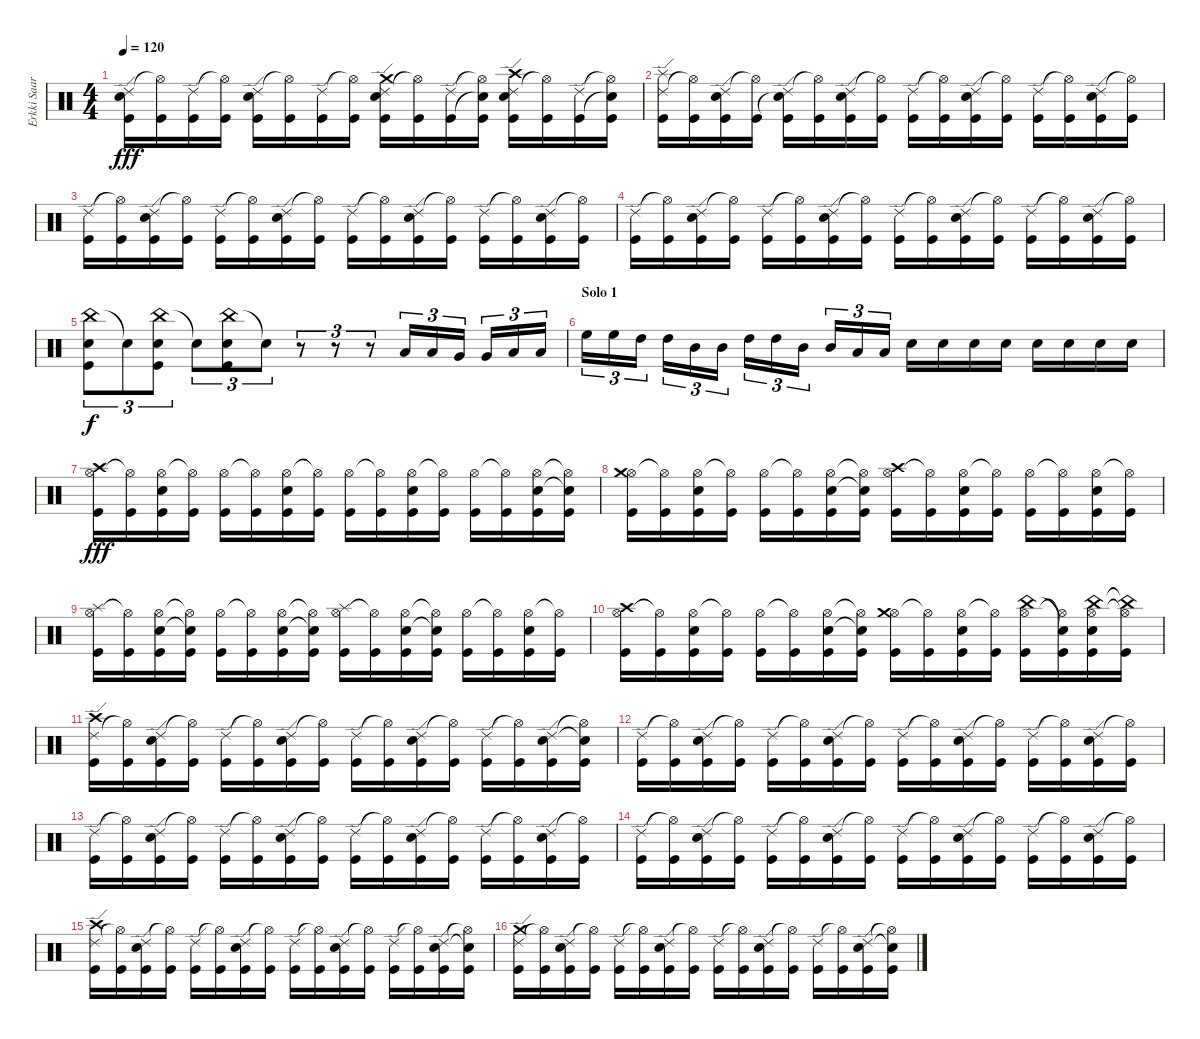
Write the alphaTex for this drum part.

\track ("Erkki Saarinen" "Erkki Saar") {instrument percussion}
\staff {score}
\articulation defaults
\ts (4 4)
\tempo 120
\clef neutral
\ks c
("Ride (edge) 2" "Snare (hit) 2" "Kick (hit)").16{dy fff} ("Hi-Hat (open)"{t} "Kick (hit)").16 ("Ride (edge) 2" "Kick (hit)").16 ("Hi-Hat (open)"{t} "Kick (hit)").16 ("Ride (edge) 2" "Snare (hit) 2" "Kick (hit)").16 ("Hi-Hat (open)"{t} "Kick (hit)").16 ("Ride (edge) 2" "Kick (hit)").16 ("Hi-Hat (open)"{t} "Kick (hit)").16 ("Ride (edge) 2" "Crash medium (hit)" "Snare (hit) 2" "Kick (hit)").16 ("Hi-Hat (open)"{t} "Kick (hit)").16 ("Ride (edge) 2" "Kick (hit)").16 ("Hi-Hat (open)"{t} "Snare (hit)"{t} "Kick (hit)").16 ("Ride (edge) 2" "Crash high (hit)" "Snare (hit) 2" "Kick (hit)").16 ("Hi-Hat (open)"{t} "Kick (hit)").16 ("Ride (edge) 2" "Kick (hit)").16 ("Hi-Hat (open)"{t} "Snare (hit)"{t} "Kick (hit)").16 |
("Ride (edge) 2" "Splash (hit)" "Kick (hit)").16 ("Hi-Hat (open)"{t} "Kick (hit)").16 ("Ride (edge) 2" "Snare (hit) 2" "Kick (hit)").16 ("Hi-Hat (open)"{t} "Kick (hit)").16 ("Ride (edge) 2" "Snare (hit)"{t} "Kick (hit)").16 ("Hi-Hat (open)"{t} "Kick (hit)").16 ("Ride (edge) 2" "Snare (hit) 2" "Kick (hit)").16 ("Hi-Hat (open)"{t} "Kick (hit)").16 ("Ride (edge) 2" "Kick (hit)").16 ("Hi-Hat (open)"{t} "Kick (hit)").16 ("Ride (edge) 2" "Snare (hit) 2" "Kick (hit)").16 ("Hi-Hat (open)"{t} "Kick (hit)").16 ("Ride (edge) 2" "Kick (hit)").16 ("Hi-Hat (open)"{t} "Kick (hit)").16 ("Ride (edge) 2" "Snare (hit) 2" "Kick (hit)").16 ("Hi-Hat (open)"{t} "Kick (hit)").16 |
("Ride (edge) 2" "Kick (hit)").16 ("Hi-Hat (open)"{t} "Kick (hit)").16 ("Ride (edge) 2" "Snare (hit) 2" "Kick (hit)").16 ("Hi-Hat (open)"{t} "Kick (hit)").16 ("Ride (edge) 2" "Kick (hit)").16 ("Hi-Hat (open)"{t} "Kick (hit)").16 ("Ride (edge) 2" "Snare (hit) 2" "Kick (hit)").16 ("Hi-Hat (open)"{t} "Kick (hit)").16 ("Ride (edge) 2" "Kick (hit)").16 ("Hi-Hat (open)"{t} "Kick (hit)").16 ("Ride (edge) 2" "Snare (hit) 2" "Kick (hit)").16 ("Hi-Hat (open)"{t} "Kick (hit)").16 ("Ride (edge) 2" "Kick (hit)").16 ("Hi-Hat (open)"{t} "Kick (hit)").16 ("Ride (edge) 2" "Snare (hit) 2" "Kick (hit)").16 ("Hi-Hat (open)"{t} "Kick (hit)").16 |
("Ride (edge) 2" "Kick (hit)").16 ("Hi-Hat (open)"{t} "Kick (hit)").16 ("Ride (edge) 2" "Snare (hit) 2" "Kick (hit)").16 ("Hi-Hat (open)"{t} "Kick (hit)").16 ("Ride (edge) 2" "Kick (hit)").16 ("Hi-Hat (open)"{t} "Kick (hit)").16 ("Ride (edge) 2" "Snare (hit) 2" "Kick (hit)").16 ("Hi-Hat (open)"{t} "Kick (hit)").16 ("Ride (edge) 2" "Kick (hit)").16 ("Hi-Hat (open)"{t} "Kick (hit)").16 ("Ride (edge) 2" "Snare (hit) 2" "Kick (hit)").16 ("Hi-Hat (open)"{t} "Kick (hit)").16 ("Ride (edge) 2" "Kick (hit)").16 ("Hi-Hat (open)"{t} "Kick (hit)").16 ("Ride (edge) 2" "Snare (hit) 2" "Kick (hit)").16 ("Hi-Hat (open)"{t} "Kick (hit)").16 |
("China (hit)" "Snare (hit) 2" "Kick (hit)").8{tu (3 2) dy f} "Snare (hit)"{t}.8{tu (3 2)} ("China (hit)" "Snare (hit) 2" "Kick (hit)").8{tu (3 2)} "Snare (hit)"{t}.8{tu (3 2)} ("China (hit)" "Snare (hit) 2" "Kick (hit)").8{tu (3 2)} "Snare (hit)"{t}.8{tu (3 2)} r.8{tu (3 2)} r.8{tu (3 2)} r.8{tu (3 2)} "Low Tom (hit)".16{tu (3 2)} "Low Tom (hit)".16{tu (3 2)} "Very Low Tom (hit)".16{tu (3 2)} "Very Low Tom (hit)".16{tu (3 2)} "Low Floor Tom (hit)".16{tu (3 2)} "Low Floor Tom (hit)".16{tu (3 2)} |
\section ("" "Solo 1")
"High Floor Tom (hit)".16{tu (3 2)} "High Floor Tom (hit)".16{tu (3 2)} "High Tom (hit)".16{tu (3 2)} "High Tom (hit)".16{tu (3 2)} "Mid Tom (hit)".16{tu (3 2)} "Mid Tom (hit)".16{tu (3 2)} "High Tom (hit)".16{tu (3 2)} "High Tom (hit)".16{tu (3 2)} "Mid Tom (hit)".16{tu (3 2)} "Mid Tom (hit)".16{tu (3 2)} "Low Tom (hit)".16{tu (3 2)} "Low Tom (hit)".16{tu (3 2)} "Snare (hit) 2".16 "Snare (hit) 2".16 "Snare (hit) 2".16 "Snare (hit) 2".16 "Snare (hit) 2".16 "Snare (hit) 2".16 "Snare (hit) 2".16 "Snare (hit) 2".16 |
("Hi-Hat (open)" "Crash high (hit)" "Kick (hit)").16{dy fff} ("Hi-Hat (open)"{t} "Kick (hit)").16 ("Hi-Hat (open)" "Snare (hit) 2" "Kick (hit)").16 ("Hi-Hat (open)"{t} "Kick (hit)").16 ("Hi-Hat (open)" "Kick (hit)").16 ("Hi-Hat (open)"{t} "Kick (hit)").16 ("Hi-Hat (open)" "Snare (hit) 2" "Kick (hit)").16 ("Hi-Hat (open)"{t} "Kick (hit)").16 ("Hi-Hat (open)" "Kick (hit)").16 ("Hi-Hat (open)"{t} "Kick (hit)").16 ("Hi-Hat (open)" "Snare (hit) 2" "Kick (hit)").16 ("Hi-Hat (open)"{t} "Kick (hit)").16 ("Hi-Hat (open)" "Kick (hit)").16 ("Hi-Hat (open)"{t} "Kick (hit)").16 ("Hi-Hat (open)" "Snare (hit) 2" "Kick (hit)").16 ("Hi-Hat (open)"{t} "Snare (hit)"{t} "Kick (hit)").16 |
("Hi-Hat (open)" "Crash medium (hit)" "Kick (hit)").16 ("Hi-Hat (open)"{t} "Kick (hit)").16 ("Hi-Hat (open)" "Snare (hit) 2" "Kick (hit)").16 ("Hi-Hat (open)"{t} "Kick (hit)").16 ("Hi-Hat (open)" "Kick (hit)").16 ("Hi-Hat (open)"{t} "Kick (hit)").16 ("Hi-Hat (open)" "Snare (hit) 2" "Kick (hit)").16 ("Hi-Hat (open)"{t} "Snare (hit)"{t} "Kick (hit)").16 ("Hi-Hat (open)" "Crash high (hit)" "Kick (hit)").16 ("Hi-Hat (open)"{t} "Kick (hit)").16 ("Hi-Hat (open)" "Snare (hit) 2" "Kick (hit)").16 ("Hi-Hat (open)"{t} "Kick (hit)").16 ("Hi-Hat (open)" "Kick (hit)").16 ("Hi-Hat (open)"{t} "Kick (hit)").16 ("Hi-Hat (open)" "Snare (hit) 2" "Kick (hit)").16 ("Hi-Hat (open)"{t} "Kick (hit)").16 |
("Hi-Hat (open)" "Splash (hit)" "Kick (hit)").16 ("Hi-Hat (open)"{t} "Kick (hit)").16 ("Hi-Hat (open)" "Snare (hit) 2" "Kick (hit)").16 ("Hi-Hat (open)"{t} "Snare (hit)"{t} "Kick (hit)").16 ("Hi-Hat (open)" "Kick (hit)").16 ("Hi-Hat (open)"{t} "Kick (hit)").16 ("Hi-Hat (open)" "Snare (hit) 2" "Kick (hit)").16 ("Hi-Hat (open)"{t} "Snare (hit)"{t} "Kick (hit)").16 ("Hi-Hat (open)" "Splash (hit)" "Kick (hit)").16 ("Hi-Hat (open)"{t} "Kick (hit)").16 ("Hi-Hat (open)" "Snare (hit) 2" "Kick (hit)").16 ("Hi-Hat (open)"{t} "Snare (hit)"{t} "Kick (hit)").16 ("Hi-Hat (open)" "Kick (hit)").16 ("Hi-Hat (open)"{t} "Kick (hit)").16 ("Hi-Hat (open)" "Snare (hit) 2" "Kick (hit)").16 ("Hi-Hat (open)"{t} "Kick (hit)").16 |
("Hi-Hat (open)" "Crash high (hit)" "Kick (hit)").16 ("Hi-Hat (open)"{t} "Kick (hit)").16 ("Hi-Hat (open)" "Snare (hit) 2" "Kick (hit)").16 ("Hi-Hat (open)"{t} "Kick (hit)").16 ("Hi-Hat (open)" "Kick (hit)").16 ("Hi-Hat (open)"{t} "Kick (hit)").16 ("Hi-Hat (open)" "Snare (hit) 2" "Kick (hit)").16 ("Hi-Hat (open)"{t} "Snare (hit)"{t} "Kick (hit)").16 ("Hi-Hat (open)" "Crash medium (hit)" "Kick (hit)").16 ("Hi-Hat (open)"{t} "Kick (hit)").16 ("Hi-Hat (open)" "Snare (hit) 2" "Kick (hit)").16 ("Hi-Hat (open)"{t} "Kick (hit)").16 ("Hi-Hat (open)" "China (hit)" "Kick (hit)").16 ("Hi-Hat (open)"{t} "Snare (hit)"{t} "Kick (hit)").16 ("Hi-Hat (open)" "China (hit)" "Snare (hit) 2" "Kick (hit)").16 ("Hi-Hat (open)"{t} "China (hit)"{t} "Kick (hit)").16 |
("Ride (edge) 2" "Crash high (hit)" "Kick (hit)").16 ("Hi-Hat (open)"{t} "Kick (hit)").16 ("Ride (edge) 2" "Snare (hit) 2" "Kick (hit)").16 ("Hi-Hat (open)"{t} "Kick (hit)").16 ("Ride (edge) 2" "Kick (hit)").16 ("Hi-Hat (open)"{t} "Kick (hit)").16 ("Ride (edge) 2" "Snare (hit) 2" "Kick (hit)").16 ("Hi-Hat (open)"{t} "Kick (hit)").16 ("Ride (edge) 2" "Kick (hit)").16 ("Hi-Hat (open)"{t} "Kick (hit)").16 ("Ride (edge) 2" "Snare (hit) 2" "Kick (hit)").16 ("Hi-Hat (open)"{t} "Kick (hit)").16 ("Ride (edge) 2" "Kick (hit)").16 ("Hi-Hat (open)"{t} "Kick (hit)").16 ("Ride (edge) 2" "Snare (hit) 2" "Kick (hit)").16 ("Hi-Hat (open)"{t} "Snare (hit)"{t} "Kick (hit)").16 |
("Ride (edge) 2" "Kick (hit)").16 ("Hi-Hat (open)"{t} "Kick (hit)").16 ("Ride (edge) 2" "Snare (hit) 2" "Kick (hit)").16 ("Hi-Hat (open)"{t} "Kick (hit)").16 ("Ride (edge) 2" "Kick (hit)").16 ("Hi-Hat (open)"{t} "Kick (hit)").16 ("Ride (edge) 2" "Snare (hit) 2" "Kick (hit)").16 ("Hi-Hat (open)"{t} "Kick (hit)").16 ("Ride (edge) 2" "Kick (hit)").16 ("Hi-Hat (open)"{t} "Kick (hit)").16 ("Ride (edge) 2" "Snare (hit) 2" "Kick (hit)").16 ("Hi-Hat (open)"{t} "Kick (hit)").16 ("Ride (edge) 2" "Kick (hit)").16 ("Hi-Hat (open)"{t} "Kick (hit)").16 ("Ride (edge) 2" "Snare (hit) 2" "Kick (hit)").16 ("Hi-Hat (open)"{t} "Kick (hit)").16 |
("Ride (edge) 2" "Kick (hit)").16 ("Hi-Hat (open)"{t} "Kick (hit)").16 ("Ride (edge) 2" "Snare (hit) 2" "Kick (hit)").16 ("Hi-Hat (open)"{t} "Kick (hit)").16 ("Ride (edge) 2" "Kick (hit)").16 ("Hi-Hat (open)"{t} "Kick (hit)").16 ("Ride (edge) 2" "Snare (hit) 2" "Kick (hit)").16 ("Hi-Hat (open)"{t} "Kick (hit)").16 ("Ride (edge) 2" "Kick (hit)").16 ("Hi-Hat (open)"{t} "Kick (hit)").16 ("Ride (edge) 2" "Snare (hit) 2" "Kick (hit)").16 ("Hi-Hat (open)"{t} "Kick (hit)").16 ("Ride (edge) 2" "Kick (hit)").16 ("Hi-Hat (open)"{t} "Kick (hit)").16 ("Ride (edge) 2" "Snare (hit) 2" "Kick (hit)").16 ("Hi-Hat (open)"{t} "Kick (hit)").16 |
("Ride (edge) 2" "Kick (hit)").16 ("Hi-Hat (open)"{t} "Kick (hit)").16 ("Ride (edge) 2" "Snare (hit) 2" "Kick (hit)").16 ("Hi-Hat (open)"{t} "Kick (hit)").16 ("Ride (edge) 2" "Kick (hit)").16 ("Hi-Hat (open)"{t} "Kick (hit)").16 ("Ride (edge) 2" "Snare (hit) 2" "Kick (hit)").16 ("Hi-Hat (open)"{t} "Kick (hit)").16 ("Ride (edge) 2" "Kick (hit)").16 ("Hi-Hat (open)"{t} "Kick (hit)").16 ("Ride (edge) 2" "Snare (hit) 2" "Kick (hit)").16 ("Hi-Hat (open)"{t} "Kick (hit)").16 ("Ride (edge) 2" "Kick (hit)").16 ("Hi-Hat (open)"{t} "Kick (hit)").16 ("Ride (edge) 2" "Snare (hit) 2" "Kick (hit)").16 ("Hi-Hat (open)"{t} "Kick (hit)").16 |
("Ride (edge) 2" "Crash high (hit)" "Kick (hit)").16 ("Hi-Hat (open)"{t} "Kick (hit)").16 ("Ride (edge) 2" "Snare (hit) 2" "Kick (hit)").16 ("Hi-Hat (open)"{t} "Kick (hit)").16 ("Ride (edge) 2" "Kick (hit)").16 ("Hi-Hat (open)"{t} "Kick (hit)").16 ("Ride (edge) 2" "Snare (hit) 2" "Kick (hit)").16 ("Hi-Hat (open)"{t} "Kick (hit)").16 ("Ride (edge) 2" "Kick (hit)").16 ("Hi-Hat (open)"{t} "Kick (hit)").16 ("Ride (edge) 2" "Snare (hit) 2" "Kick (hit)").16 ("Hi-Hat (open)"{t} "Kick (hit)").16 ("Ride (edge) 2" "Kick (hit)").16 ("Hi-Hat (open)"{t} "Kick (hit)").16 ("Ride (edge) 2" "Snare (hit) 2" "Kick (hit)").16 ("Hi-Hat (open)"{t} "Snare (hit)"{t} "Kick (hit)").16 |
("Ride (edge) 2" "Crash medium (hit)" "Kick (hit)").16 ("Hi-Hat (open)"{t} "Kick (hit)").16 ("Ride (edge) 2" "Snare (hit) 2" "Kick (hit)").16 ("Hi-Hat (open)"{t} "Kick (hit)").16 ("Ride (edge) 2" "Kick (hit)").16 ("Hi-Hat (open)"{t} "Kick (hit)").16 ("Ride (edge) 2" "Snare (hit) 2" "Kick (hit)").16 ("Hi-Hat (open)"{t} "Kick (hit)").16 ("Ride (edge) 2" "Kick (hit)").16 ("Hi-Hat (open)"{t} "Kick (hit)").16 ("Ride (edge) 2" "Snare (hit) 2" "Kick (hit)").16 ("Hi-Hat (open)"{t} "Kick (hit)").16 ("Ride (edge) 2" "Kick (hit)").16 ("Hi-Hat (open)"{t} "Kick (hit)").16 ("Ride (edge) 2" "Snare (hit) 2" "Kick (hit)").16 ("Hi-Hat (open)"{t} "Snare (hit)"{t} "Kick (hit)").16
